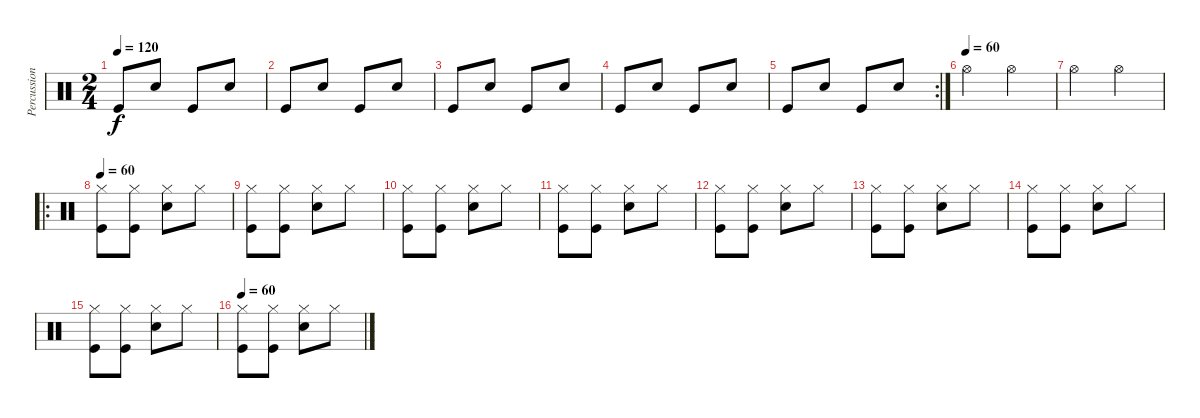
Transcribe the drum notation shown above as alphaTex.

\track ("Percussions" "Percussion") {instrument percussion}
\staff {score}
\articulation defaults
\ts (2 4)
\tempo 120
\clef neutral
\ks c "Kick (hit)".8{dy f} "Electric Snare (hit)".8 "Kick (hit)".8 "Electric Snare (hit)".8
|
"Kick (hit)".8 "Electric Snare (hit)".8 "Kick (hit)".8 "Electric Snare (hit)".8 |
"Kick (hit)".8 "Electric Snare (hit)".8 "Kick (hit)".8 "Electric Snare (hit)".8 |
"Kick (hit)".8 "Electric Snare (hit)".8 "Kick (hit)".8 "Electric Snare (hit)".8 |
\rc 2 "Kick (hit)".8 "Electric Snare (hit)".8 "Kick (hit)".8 "Electric Snare (hit)".8
|
\tempo (60)
"Hi-Hat (open)".4 "Hi-Hat (open)".4 |
"Hi-Hat (open)".4 "Hi-Hat (open)".4 |
\ro
\tempo 60
("Hi-Hat (closed)" "Kick (hit)").8 ("Hi-Hat (closed)" "Kick (hit)").8 ("Hi-Hat (closed)" "Electric Snare (hit)").8 "Hi-Hat (closed)".8 |
("Hi-Hat (closed)" "Kick (hit)").8 ("Hi-Hat (closed)" "Kick (hit)").8 ("Hi-Hat (closed)" "Electric Snare (hit)").8 "Hi-Hat (closed)".8 |
("Hi-Hat (closed)" "Kick (hit)").8 ("Hi-Hat (closed)" "Kick (hit)").8 ("Hi-Hat (closed)" "Electric Snare (hit)").8 "Hi-Hat (closed)".8 |
("Hi-Hat (closed)" "Kick (hit)").8 ("Hi-Hat (closed)" "Kick (hit)").8 ("Hi-Hat (closed)" "Electric Snare (hit)").8 "Hi-Hat (closed)".8 |
("Hi-Hat (closed)" "Kick (hit)").8 ("Hi-Hat (closed)" "Kick (hit)").8 ("Hi-Hat (closed)" "Electric Snare (hit)").8 "Hi-Hat (closed)".8 |
("Hi-Hat (closed)" "Kick (hit)").8 ("Hi-Hat (closed)" "Kick (hit)").8 ("Hi-Hat (closed)" "Electric Snare (hit)").8 "Hi-Hat (closed)".8 |
("Hi-Hat (closed)" "Kick (hit)").8 ("Hi-Hat (closed)" "Kick (hit)").8 ("Hi-Hat (closed)" "Electric Snare (hit)").8 "Hi-Hat (closed)".8 |
("Hi-Hat (closed)" "Kick (hit)").8 ("Hi-Hat (closed)" "Kick (hit)").8 ("Hi-Hat (closed)" "Electric Snare (hit)").8 "Hi-Hat (closed)".8 |
\tempo 60
("Hi-Hat (closed)" "Kick (hit)").8 ("Hi-Hat (closed)" "Kick (hit)").8 ("Hi-Hat (closed)" "Electric Snare (hit)").8 "Hi-Hat (closed)".8
